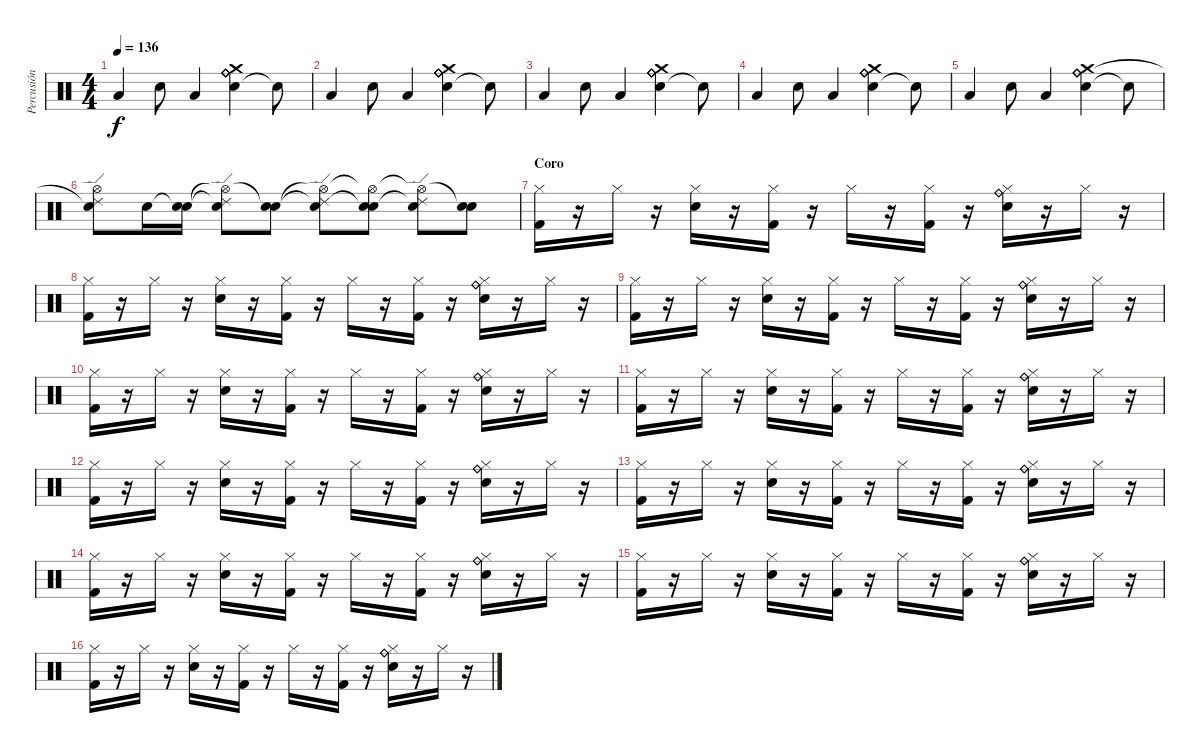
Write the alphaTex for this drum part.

\track ("Percusión" "Percusión") {instrument percussion}
\staff {score}
\articulation defaults
\ts (4 4)
\tempo 136
\clef neutral
\ks c "Low Tom (hit)".4{dy f} "Electric Snare (hit)".8 "Low Tom (hit)".4
("Electric Snare (hit)" "Crash medium (hit)" "Ride (bell)" "Ride (bell)" "Ride (bell)" "Ride (bell)").4 "Snare (hit)"{t}.8 |
"Low Tom (hit)".4 "Electric Snare (hit)".8 "Low Tom (hit)".4 ("Electric Snare (hit)" "Crash medium (hit)" "Ride (bell)" "Ride (bell)" "Ride (bell)" "Ride (bell)").4 "Snare (hit)"{t}.8 |
"Low Tom (hit)".4 "Electric Snare (hit)".8 "Low Tom (hit)".4 ("Electric Snare (hit)" "Crash medium (hit)" "Ride (bell)" "Ride (bell)" "Ride (bell)" "Ride (bell)").4 "Snare (hit)"{t}.8 |
"Low Tom (hit)".4 "Electric Snare (hit)".8 "Low Tom (hit)".4 ("Electric Snare (hit)" "Crash medium (hit)" "Ride (bell)" "Ride (bell)" "Ride (bell)" "Ride (bell)").4 "Snare (hit)"{t}.8 |
"Low Tom (hit)".4 "Electric Snare (hit)".8 "Low Tom (hit)".4 ("Electric Snare (hit)" "Crash medium (hit)" "Ride (bell)" "Ride (bell)" "Ride (bell)" "Ride (bell)").4 "Snare (hit)"{t}.8 |
("Hi-Hat (open)" "Ride (edge) 2" "Electric Snare (hit)"{t}).8 "Electric Snare (hit)".16 ("Snare (hit)"{t} "Electric Snare (hit)").16 ("Hi-Hat (open)"{t} "Ride (edge) 2"{t} "Electric Snare (hit)").8 ("Snare (hit)"{t} "Electric Snare (hit)").8 ("Hi-Hat (open)"{t} "Ride (edge) 2"{t} "Electric Snare (hit)").8 ("Hi-Hat (open)"{t} "Snare (hit)"{t} "Electric Snare (hit)").8 ("Hi-Hat (open)"{t} "Ride (edge) 2"{t} "Electric Snare (hit)").8 ("Snare (hit)"{t} "Electric Snare (hit)").8 |
\section ("" "Coro")
("Kick (hit) 2" "Hi-Hat (closed)").16 r.16 "Hi-Hat (closed)".16 r.16 ("Electric Snare (hit)" "Hi-Hat (closed)").16 r.16 ("Kick (hit) 2" "Hi-Hat (closed)").16 r.16 "Hi-Hat (closed)".16 r.16 ("Kick (hit) 2" "Hi-Hat (closed)").16 r.16 ("Electric Snare (hit)" "Hi-Hat (closed)" "Ride (bell)" "Ride (bell)").16 r.16 "Hi-Hat (closed)".16 r.16 |
("Kick (hit) 2" "Hi-Hat (closed)").16 r.16 "Hi-Hat (closed)".16 r.16 ("Electric Snare (hit)" "Hi-Hat (closed)").16 r.16 ("Kick (hit) 2" "Hi-Hat (closed)").16 r.16 "Hi-Hat (closed)".16 r.16 ("Kick (hit) 2" "Hi-Hat (closed)").16 r.16 ("Electric Snare (hit)" "Hi-Hat (closed)" "Ride (bell)" "Ride (bell)").16 r.16 "Hi-Hat (closed)".16 r.16 |
("Kick (hit) 2" "Hi-Hat (closed)").16 r.16 "Hi-Hat (closed)".16 r.16 ("Electric Snare (hit)" "Hi-Hat (closed)").16 r.16 ("Kick (hit) 2" "Hi-Hat (closed)").16 r.16 "Hi-Hat (closed)".16 r.16 ("Kick (hit) 2" "Hi-Hat (closed)").16 r.16 ("Electric Snare (hit)" "Hi-Hat (closed)" "Ride (bell)" "Ride (bell)").16 r.16 "Hi-Hat (closed)".16 r.16 |
("Kick (hit) 2" "Hi-Hat (closed)").16 r.16 "Hi-Hat (closed)".16 r.16 ("Electric Snare (hit)" "Hi-Hat (closed)").16 r.16 ("Kick (hit) 2" "Hi-Hat (closed)").16 r.16 "Hi-Hat (closed)".16 r.16 ("Kick (hit) 2" "Hi-Hat (closed)").16 r.16 ("Electric Snare (hit)" "Hi-Hat (closed)" "Ride (bell)" "Ride (bell)").16 r.16 "Hi-Hat (closed)".16 r.16 |
("Kick (hit) 2" "Hi-Hat (closed)").16 r.16 "Hi-Hat (closed)".16 r.16 ("Electric Snare (hit)" "Hi-Hat (closed)").16 r.16 ("Kick (hit) 2" "Hi-Hat (closed)").16 r.16 "Hi-Hat (closed)".16 r.16 ("Kick (hit) 2" "Hi-Hat (closed)").16 r.16 ("Electric Snare (hit)" "Hi-Hat (closed)" "Ride (bell)" "Ride (bell)").16 r.16 "Hi-Hat (closed)".16 r.16 |
("Kick (hit) 2" "Hi-Hat (closed)").16 r.16 "Hi-Hat (closed)".16 r.16 ("Electric Snare (hit)" "Hi-Hat (closed)").16 r.16 ("Kick (hit) 2" "Hi-Hat (closed)").16 r.16 "Hi-Hat (closed)".16 r.16 ("Kick (hit) 2" "Hi-Hat (closed)").16 r.16 ("Electric Snare (hit)" "Hi-Hat (closed)" "Ride (bell)" "Ride (bell)").16 r.16 "Hi-Hat (closed)".16 r.16 |
("Kick (hit) 2" "Hi-Hat (closed)").16 r.16 "Hi-Hat (closed)".16 r.16 ("Electric Snare (hit)" "Hi-Hat (closed)").16 r.16 ("Kick (hit) 2" "Hi-Hat (closed)").16 r.16 "Hi-Hat (closed)".16 r.16 ("Kick (hit) 2" "Hi-Hat (closed)").16 r.16 ("Electric Snare (hit)" "Hi-Hat (closed)" "Ride (bell)" "Ride (bell)").16 r.16 "Hi-Hat (closed)".16 r.16 |
("Kick (hit) 2" "Hi-Hat (closed)").16 r.16 "Hi-Hat (closed)".16 r.16 ("Electric Snare (hit)" "Hi-Hat (closed)").16 r.16 ("Kick (hit) 2" "Hi-Hat (closed)").16 r.16 "Hi-Hat (closed)".16 r.16 ("Kick (hit) 2" "Hi-Hat (closed)").16 r.16 ("Electric Snare (hit)" "Hi-Hat (closed)" "Ride (bell)" "Ride (bell)").16 r.16 "Hi-Hat (closed)".16 r.16 |
("Kick (hit) 2" "Hi-Hat (closed)").16 r.16 "Hi-Hat (closed)".16 r.16 ("Electric Snare (hit)" "Hi-Hat (closed)").16 r.16 ("Kick (hit) 2" "Hi-Hat (closed)").16 r.16 "Hi-Hat (closed)".16 r.16 ("Kick (hit) 2" "Hi-Hat (closed)").16 r.16 ("Electric Snare (hit)" "Hi-Hat (closed)" "Ride (bell)" "Ride (bell)").16 r.16 "Hi-Hat (closed)".16 r.16 |
("Kick (hit) 2" "Hi-Hat (closed)").16 r.16 "Hi-Hat (closed)".16 r.16 ("Electric Snare (hit)" "Hi-Hat (closed)").16 r.16 ("Kick (hit) 2" "Hi-Hat (closed)").16 r.16 "Hi-Hat (closed)".16 r.16 ("Kick (hit) 2" "Hi-Hat (closed)").16 r.16 ("Electric Snare (hit)" "Hi-Hat (closed)" "Ride (bell)" "Ride (bell)").16 r.16 "Hi-Hat (closed)".16 r.16
